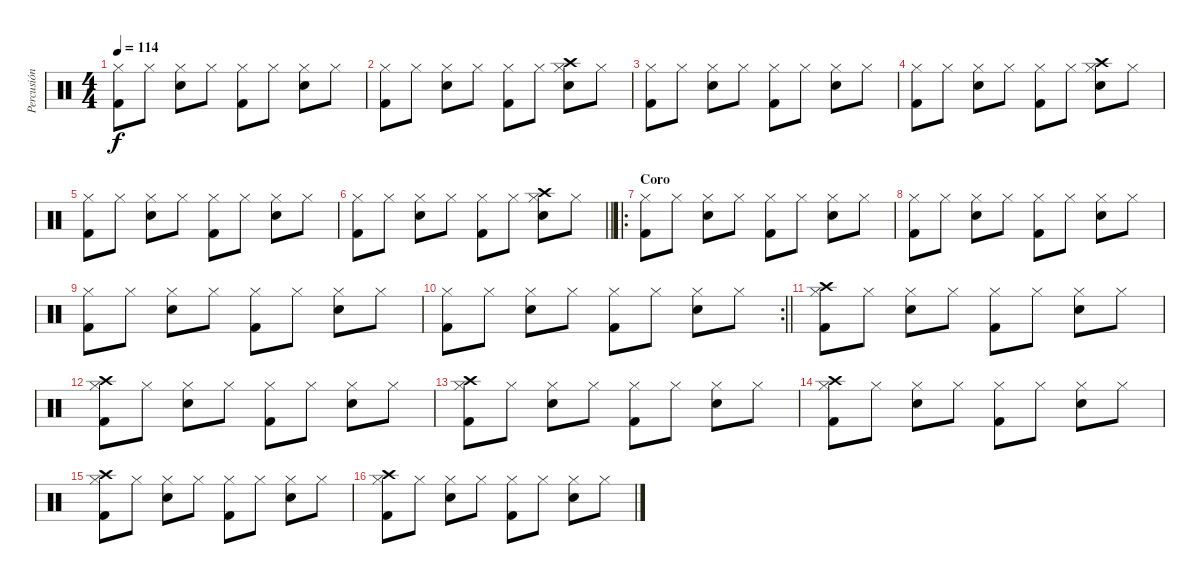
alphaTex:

\track ("Percusión" "Percusión") {instrument percussion}
\staff {score}
\articulation defaults
\ts (4 4)
\tempo 114
\clef neutral
\ks c
("Hi-Hat (closed)" "Kick (hit) 2").8{dy f} "Hi-Hat (closed)".8 ("Hi-Hat (closed)" "Electric Snare (hit)").8 "Hi-Hat (closed)".8 ("Hi-Hat (closed)" "Kick (hit) 2").8 "Hi-Hat (closed)".8 ("Hi-Hat (closed)" "Electric Snare (hit)").8 "Hi-Hat (closed)".8 |
("Hi-Hat (closed)" "Kick (hit) 2").8 "Hi-Hat (closed)".8 ("Hi-Hat (closed)" "Electric Snare (hit)").8 "Hi-Hat (closed)".8 ("Hi-Hat (closed)" "Kick (hit) 2").8 "Hi-Hat (closed)".8 ("Crash high (hit)" "Hi-Hat (closed)" "Electric Snare (hit)").8 "Hi-Hat (closed)".8 |
("Hi-Hat (closed)" "Kick (hit) 2").8 "Hi-Hat (closed)".8 ("Hi-Hat (closed)" "Electric Snare (hit)").8 "Hi-Hat (closed)".8 ("Hi-Hat (closed)" "Kick (hit) 2").8 "Hi-Hat (closed)".8 ("Hi-Hat (closed)" "Electric Snare (hit)").8 "Hi-Hat (closed)".8 |
("Hi-Hat (closed)" "Kick (hit) 2").8 "Hi-Hat (closed)".8 ("Hi-Hat (closed)" "Electric Snare (hit)").8 "Hi-Hat (closed)".8 ("Hi-Hat (closed)" "Kick (hit) 2").8 "Hi-Hat (closed)".8 ("Crash high (hit)" "Hi-Hat (closed)" "Electric Snare (hit)").8 "Hi-Hat (closed)".8 |
("Hi-Hat (closed)" "Kick (hit) 2").8 "Hi-Hat (closed)".8 ("Hi-Hat (closed)" "Electric Snare (hit)").8 "Hi-Hat (closed)".8 ("Hi-Hat (closed)" "Kick (hit) 2").8 "Hi-Hat (closed)".8 ("Hi-Hat (closed)" "Electric Snare (hit)").8 "Hi-Hat (closed)".8 |
\barLineRight lightlight
("Hi-Hat (closed)" "Kick (hit) 2").8 "Hi-Hat (closed)".8 ("Hi-Hat (closed)" "Electric Snare (hit)").8 "Hi-Hat (closed)".8 ("Hi-Hat (closed)" "Kick (hit) 2").8 "Hi-Hat (closed)".8 ("Crash high (hit)" "Hi-Hat (closed)" "Electric Snare (hit)").8 "Hi-Hat (closed)".8 |
\ro
\section ("" "Coro")
("Hi-Hat (closed)" "Kick (hit) 2").8 "Hi-Hat (closed)".8 ("Hi-Hat (closed)" "Electric Snare (hit)").8 "Hi-Hat (closed)".8 ("Hi-Hat (closed)" "Kick (hit) 2").8 "Hi-Hat (closed)".8 ("Hi-Hat (closed)" "Electric Snare (hit)").8 "Hi-Hat (closed)".8 |
("Hi-Hat (closed)" "Kick (hit) 2").8 "Hi-Hat (closed)".8 ("Hi-Hat (closed)" "Electric Snare (hit)").8 "Hi-Hat (closed)".8 ("Hi-Hat (closed)" "Kick (hit) 2").8 "Hi-Hat (closed)".8 ("Hi-Hat (closed)" "Electric Snare (hit)").8 "Hi-Hat (closed)".8 |
("Hi-Hat (closed)" "Kick (hit) 2").8 "Hi-Hat (closed)".8 ("Hi-Hat (closed)" "Electric Snare (hit)").8 "Hi-Hat (closed)".8 ("Hi-Hat (closed)" "Kick (hit) 2").8 "Hi-Hat (closed)".8 ("Hi-Hat (closed)" "Electric Snare (hit)").8 "Hi-Hat (closed)".8 |
\rc 2
\barLineRight lightlight
("Hi-Hat (closed)" "Kick (hit) 2").8 "Hi-Hat (closed)".8 ("Hi-Hat (closed)" "Electric Snare (hit)").8 "Hi-Hat (closed)".8 ("Hi-Hat (closed)" "Kick (hit) 2").8 "Hi-Hat (closed)".8 ("Hi-Hat (closed)" "Electric Snare (hit)").8 "Hi-Hat (closed)".8 |
("Crash high (hit)" "Hi-Hat (closed)" "Kick (hit) 2").8 "Hi-Hat (closed)".8 ("Hi-Hat (closed)" "Electric Snare (hit)").8 "Hi-Hat (closed)".8 ("Hi-Hat (closed)" "Kick (hit) 2").8 "Hi-Hat (closed)".8 ("Hi-Hat (closed)" "Electric Snare (hit)").8 "Hi-Hat (closed)".8 |
("Crash high (hit)" "Hi-Hat (closed)" "Kick (hit) 2").8 "Hi-Hat (closed)".8 ("Hi-Hat (closed)" "Electric Snare (hit)").8 "Hi-Hat (closed)".8 ("Hi-Hat (closed)" "Kick (hit) 2").8 "Hi-Hat (closed)".8 ("Hi-Hat (closed)" "Electric Snare (hit)").8 "Hi-Hat (closed)".8 |
("Crash high (hit)" "Hi-Hat (closed)" "Kick (hit) 2").8 "Hi-Hat (closed)".8 ("Hi-Hat (closed)" "Electric Snare (hit)").8 "Hi-Hat (closed)".8 ("Hi-Hat (closed)" "Kick (hit) 2").8 "Hi-Hat (closed)".8 ("Hi-Hat (closed)" "Electric Snare (hit)").8 "Hi-Hat (closed)".8 |
("Crash high (hit)" "Hi-Hat (closed)" "Kick (hit) 2").8 "Hi-Hat (closed)".8 ("Hi-Hat (closed)" "Electric Snare (hit)").8 "Hi-Hat (closed)".8 ("Hi-Hat (closed)" "Kick (hit) 2").8 "Hi-Hat (closed)".8 ("Hi-Hat (closed)" "Electric Snare (hit)").8 "Hi-Hat (closed)".8 |
("Crash high (hit)" "Hi-Hat (closed)" "Kick (hit) 2").8 "Hi-Hat (closed)".8 ("Hi-Hat (closed)" "Electric Snare (hit)").8 "Hi-Hat (closed)".8 ("Hi-Hat (closed)" "Kick (hit) 2").8 "Hi-Hat (closed)".8 ("Hi-Hat (closed)" "Electric Snare (hit)").8 "Hi-Hat (closed)".8 |
("Crash high (hit)" "Hi-Hat (closed)" "Kick (hit) 2").8 "Hi-Hat (closed)".8 ("Hi-Hat (closed)" "Electric Snare (hit)").8 "Hi-Hat (closed)".8 ("Hi-Hat (closed)" "Kick (hit) 2").8 "Hi-Hat (closed)".8 ("Hi-Hat (closed)" "Electric Snare (hit)").8 "Hi-Hat (closed)".8
